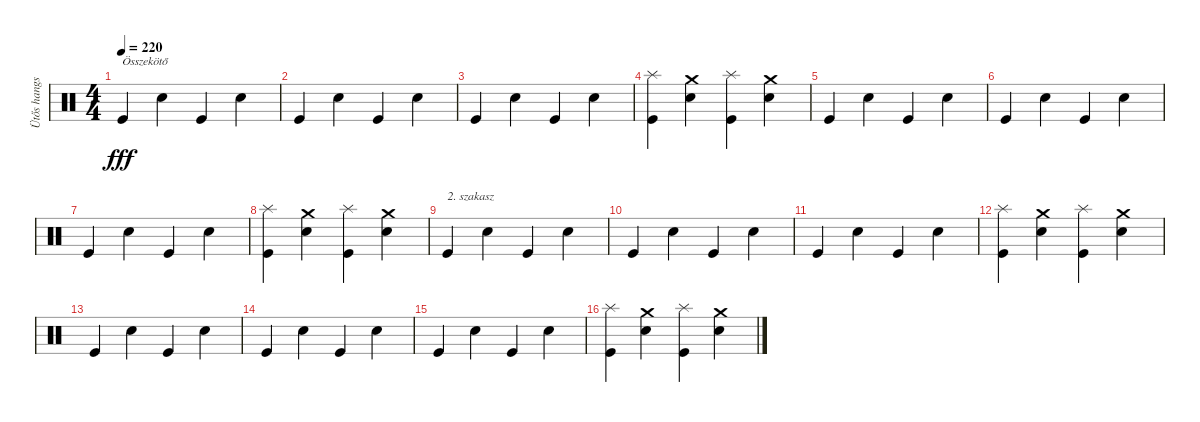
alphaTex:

\track ("Ütős hangszer" "Ütős hangs") {instrument percussion}
\staff {score}
\articulation defaults
\ts (4 4)
\tempo 220
\clef neutral
\ks c "Kick (hit)".4{txt "Összekötő" dy fff} "Snare (hit) 2".4 "Kick (hit)".4 "Snare (hit) 2".4
|
"Kick (hit)".4 "Snare (hit) 2".4 "Kick (hit)".4 "Snare (hit) 2".4 |
"Kick (hit)".4 "Snare (hit) 2".4 "Kick (hit)".4 "Snare (hit) 2".4 |
("Splash (hit)" "Kick (hit)").4 ("Crash medium (hit)" "Snare (hit) 2").4 ("Splash (hit)" "Kick (hit)").4 ("Crash medium (hit)" "Snare (hit) 2").4 |
"Kick (hit)".4 "Snare (hit) 2".4 "Kick (hit)".4 "Snare (hit) 2".4 |
"Kick (hit)".4 "Snare (hit) 2".4 "Kick (hit)".4 "Snare (hit) 2".4 |
"Kick (hit)".4 "Snare (hit) 2".4 "Kick (hit)".4 "Snare (hit) 2".4 |
("Splash (hit)" "Kick (hit)").4 ("Crash medium (hit)" "Snare (hit) 2").4 ("Splash (hit)" "Kick (hit)").4 ("Crash medium (hit)" "Snare (hit) 2").4 |
"Kick (hit)".4{txt "2. szakasz"} "Snare (hit) 2".4 "Kick (hit)".4 "Snare (hit) 2".4 |
"Kick (hit)".4 "Snare (hit) 2".4 "Kick (hit)".4 "Snare (hit) 2".4 |
"Kick (hit)".4 "Snare (hit) 2".4 "Kick (hit)".4 "Snare (hit) 2".4 |
("Splash (hit)" "Kick (hit)").4 ("Crash medium (hit)" "Snare (hit) 2").4 ("Splash (hit)" "Kick (hit)").4 ("Crash medium (hit)" "Snare (hit) 2").4 |
"Kick (hit)".4 "Snare (hit) 2".4 "Kick (hit)".4 "Snare (hit) 2".4 |
"Kick (hit)".4 "Snare (hit) 2".4 "Kick (hit)".4 "Snare (hit) 2".4 |
"Kick (hit)".4 "Snare (hit) 2".4 "Kick (hit)".4 "Snare (hit) 2".4 |
("Splash (hit)" "Kick (hit)").4 ("Crash medium (hit)" "Snare (hit) 2").4 ("Splash (hit)" "Kick (hit)").4 ("Crash medium (hit)" "Snare (hit) 2").4
